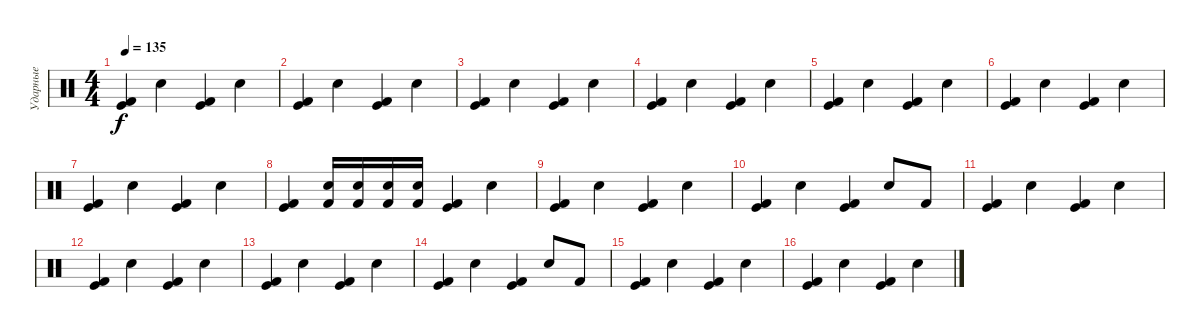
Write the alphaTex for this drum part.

\track ("Ударные" "Ударные") {instrument percussion}
\staff {score}
\articulation defaults
\ts (4 4)
\tempo 135
\clef neutral
\ks c
("Kick (hit) 2" "Kick (hit)").4{dy f} "Electric Snare (hit)".4 ("Kick (hit) 2" "Kick (hit)").4 "Electric Snare (hit)".4 |
("Kick (hit) 2" "Kick (hit)").4 "Electric Snare (hit)".4 ("Kick (hit) 2" "Kick (hit)").4 "Electric Snare (hit)".4 |
("Kick (hit) 2" "Kick (hit)").4 "Electric Snare (hit)".4 ("Kick (hit) 2" "Kick (hit)").4 "Electric Snare (hit)".4 |
("Kick (hit) 2" "Kick (hit)").4 "Electric Snare (hit)".4 ("Kick (hit) 2" "Kick (hit)").4 "Electric Snare (hit)".4 |
("Kick (hit) 2" "Kick (hit)").4 "Electric Snare (hit)".4 ("Kick (hit) 2" "Kick (hit)").4 "Electric Snare (hit)".4 |
("Kick (hit) 2" "Kick (hit)").4 "Electric Snare (hit)".4 ("Kick (hit) 2" "Kick (hit)").4 "Electric Snare (hit)".4 |
("Kick (hit) 2" "Kick (hit)").4 "Electric Snare (hit)".4 ("Kick (hit) 2" "Kick (hit)").4 "Electric Snare (hit)".4 |
("Kick (hit) 2" "Kick (hit)").4 ("Electric Snare (hit)" "Kick (hit) 2").16 ("Electric Snare (hit)" "Kick (hit) 2").16 ("Electric Snare (hit)" "Kick (hit) 2").16 ("Electric Snare (hit)" "Kick (hit) 2").16 ("Kick (hit) 2" "Kick (hit)").4 "Electric Snare (hit)".4 |
("Kick (hit) 2" "Kick (hit)").4 "Electric Snare (hit)".4 ("Kick (hit) 2" "Kick (hit)").4 "Electric Snare (hit)".4 |
("Kick (hit) 2" "Kick (hit)").4 "Electric Snare (hit)".4 ("Kick (hit) 2" "Kick (hit)").4 "Electric Snare (hit)".8 "Kick (hit) 2".8 |
("Kick (hit) 2" "Kick (hit)").4 "Electric Snare (hit)".4 ("Kick (hit) 2" "Kick (hit)").4 "Electric Snare (hit)".4 |
("Kick (hit) 2" "Kick (hit)").4 "Electric Snare (hit)".4 ("Kick (hit) 2" "Kick (hit)").4 "Electric Snare (hit)".4 |
("Kick (hit) 2" "Kick (hit)").4 "Electric Snare (hit)".4 ("Kick (hit) 2" "Kick (hit)").4 "Electric Snare (hit)".4 |
("Kick (hit) 2" "Kick (hit)").4 "Electric Snare (hit)".4 ("Kick (hit) 2" "Kick (hit)").4 "Electric Snare (hit)".8 "Kick (hit) 2".8 |
("Kick (hit) 2" "Kick (hit)").4 "Electric Snare (hit)".4 ("Kick (hit) 2" "Kick (hit)").4 "Electric Snare (hit)".4 |
("Kick (hit) 2" "Kick (hit)").4 "Electric Snare (hit)".4 ("Kick (hit) 2" "Kick (hit)").4 "Electric Snare (hit)".4
